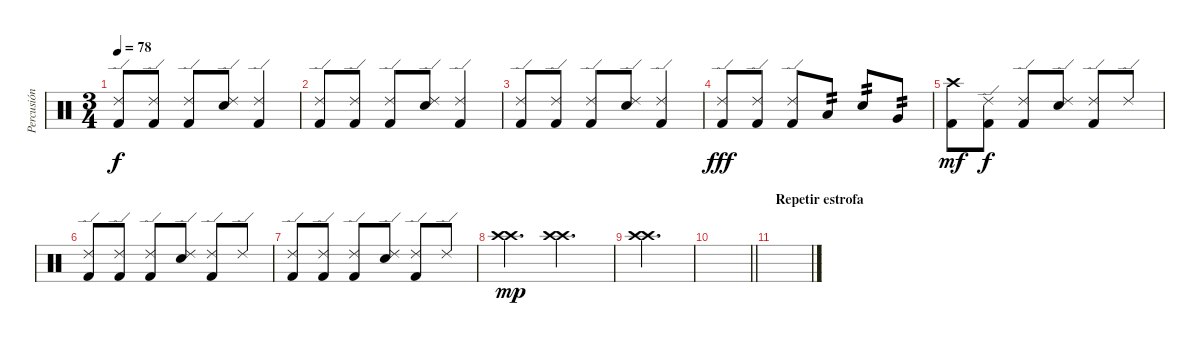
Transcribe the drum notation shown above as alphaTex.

\track ("Percusión" "Percusión") {instrument percussion}
\staff {score}
\articulation defaults
\ts (3 4)
\tempo 78
\clef neutral
\ks c
("Ride (edge) 2" "Kick (hit) 2").8{dy f} ("Ride (edge) 2" "Kick (hit) 2").8 ("Ride (edge) 2" "Kick (hit) 2").8 ("Ride (edge) 2" "Electric Snare (hit)").8 ("Ride (edge) 2" "Kick (hit) 2").4 |
("Ride (edge) 2" "Kick (hit) 2").8 ("Ride (edge) 2" "Kick (hit) 2").8 ("Ride (edge) 2" "Kick (hit) 2").8 ("Ride (edge) 2" "Electric Snare (hit)").8 ("Ride (edge) 2" "Kick (hit) 2").4 |
("Ride (edge) 2" "Kick (hit) 2").8 ("Ride (edge) 2" "Kick (hit) 2").8 ("Ride (edge) 2" "Kick (hit) 2").8 ("Ride (edge) 2" "Electric Snare (hit)").8 ("Ride (edge) 2" "Kick (hit) 2").4 |
("Ride (edge) 2" "Kick (hit) 2").8{dy fff} ("Ride (edge) 2" "Kick (hit) 2").8 ("Ride (edge) 2" "Kick (hit) 2").8 "Low Tom (hit)".8{tp 2} "Electric Snare (hit)".8{tp 2} "Very Low Tom (hit)".8{tp 2} |
("Crash high (hit)" "Kick (hit) 2").8{dy mf} ("Ride (edge) 2" "Kick (hit) 2").8{dy f} ("Ride (edge) 2" "Kick (hit) 2").8 ("Ride (edge) 2" "Electric Snare (hit)").8 ("Ride (edge) 2" "Kick (hit) 2").8 "Ride (edge) 2".8 |
("Ride (edge) 2" "Kick (hit) 2").8 ("Ride (edge) 2" "Kick (hit) 2").8 ("Ride (edge) 2" "Kick (hit) 2").8 ("Ride (edge) 2" "Electric Snare (hit)").8 ("Ride (edge) 2" "Kick (hit) 2").8 "Ride (edge) 2".8 |
("Ride (edge) 2" "Kick (hit) 2").8 ("Ride (edge) 2" "Kick (hit) 2").8 ("Ride (edge) 2" "Kick (hit) 2").8 ("Ride (edge) 2" "Electric Snare (hit)").8 ("Ride (edge) 2" "Kick (hit) 2").8 "Ride (edge) 2".8 |
("Crash high (hit)" "Crash high (hit)").4{d dy mp} ("Crash high (hit)" "Crash high (hit)").4{d} |
("Crash high (hit)" "Crash high (hit)").2{d} |
\barLineRight lightlight
|
\section ("" "Repetir estrofa")
